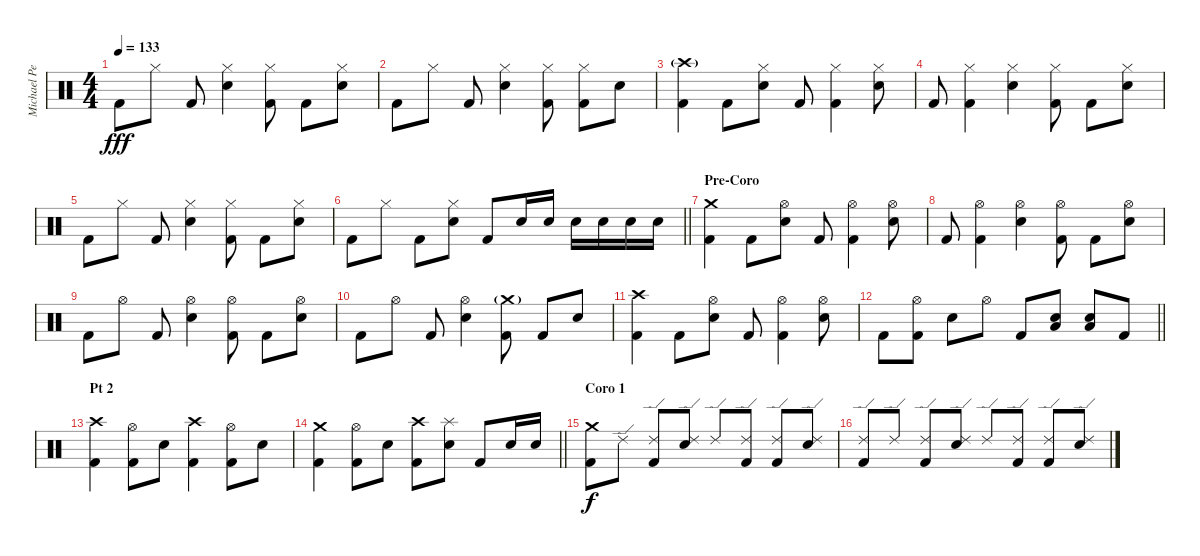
\track ("Michael Pedicone [Drums]" "Michael Pe") {instrument percussion}
\staff
\articulation defaults
\ts (4 4)
\tempo 133
\clef neutral
\ks c "Kick (hit) 2".8{dy fff} "Hi-Hat (closed)".8 "Kick (hit) 2".8
("Hi-Hat (closed)" "Electric Snare (hit)").4 ("Hi-Hat (closed)" "Kick (hit) 2").8 "Kick (hit) 2".8 ("Hi-Hat (closed)" "Electric Snare (hit)").8 |
"Kick (hit) 2".8 "Hi-Hat (closed)".8 "Kick (hit) 2".8 ("Hi-Hat (closed)" "Electric Snare (hit)").4 ("Hi-Hat (closed)" "Kick (hit) 2").8 ("Hi-Hat (closed)" "Kick (hit) 2").8 "Electric Snare (hit)".8 |
("Crash high (hit)"{g} "Kick (hit) 2").4 "Kick (hit) 2".8 ("Hi-Hat (closed)" "Electric Snare (hit)").8 "Kick (hit) 2".8 ("Hi-Hat (closed)" "Kick (hit) 2").4 ("Hi-Hat (closed)" "Electric Snare (hit)").8 |
"Kick (hit) 2".8 ("Hi-Hat (closed)" "Kick (hit) 2").4 ("Hi-Hat (closed)" "Electric Snare (hit)").4 ("Hi-Hat (closed)" "Kick (hit) 2").8 "Kick (hit) 2".8 ("Hi-Hat (closed)" "Electric Snare (hit)").8 |
"Kick (hit) 2".8 "Hi-Hat (closed)".8 "Kick (hit) 2".8 ("Hi-Hat (closed)" "Electric Snare (hit)").4 ("Hi-Hat (closed)" "Kick (hit) 2").8 "Kick (hit) 2".8 ("Hi-Hat (closed)" "Electric Snare (hit)").8 |
\barLineRight lightlight "Kick (hit) 2".8 "Hi-Hat (closed)".8 "Kick (hit) 2".8
("Hi-Hat (closed)" "Electric Snare (hit)").8 "Kick (hit) 2".8 "Electric Snare (hit)".16 "Electric Snare (hit)".16 "Electric Snare (hit)".16 "Electric Snare (hit)".16 "Electric Snare (hit)".16 "Electric Snare (hit)".16 |
\section ("" "Pre-Coro")
("Crash medium (hit)" "Kick (hit) 2").4 "Kick (hit) 2".8 ("Hi-Hat (open)" "Electric Snare (hit)").8 "Kick (hit) 2".8 ("Hi-Hat (open)" "Kick (hit) 2").4 ("Hi-Hat (open)" "Electric Snare (hit)").8 |
"Kick (hit) 2".8 ("Hi-Hat (open)" "Kick (hit) 2").4 ("Hi-Hat (open)" "Electric Snare (hit)").4 ("Hi-Hat (open)" "Kick (hit) 2").8 "Kick (hit) 2".8 ("Hi-Hat (open)" "Electric Snare (hit)").8 |
"Kick (hit) 2".8 "Hi-Hat (open)".8 "Kick (hit) 2".8 ("Hi-Hat (open)" "Electric Snare (hit)").4 ("Hi-Hat (open)" "Kick (hit) 2").8 "Kick (hit) 2".8 ("Hi-Hat (open)" "Electric Snare (hit)").8 |
"Kick (hit) 2".8 "Hi-Hat (open)".8 "Kick (hit) 2".8 ("Hi-Hat (open)" "Electric Snare (hit)").4 ("Crash medium (hit)"{g} "Kick (hit) 2").8 "Kick (hit) 2".8 "Electric Snare (hit)".8 |
("Crash high (hit)" "Kick (hit) 2").4 "Kick (hit) 2".8 ("Hi-Hat (open)" "Electric Snare (hit)").8 "Kick (hit) 2".8 ("Hi-Hat (open)" "Kick (hit) 2").4 ("Hi-Hat (open)" "Electric Snare (hit)").8 |
\barLineRight lightlight "Kick (hit) 2".8
("Hi-Hat (open)" "Kick (hit) 2").8 "Electric Snare (hit)".8 "Hi-Hat (open)".8 "Kick (hit) 2".8 ("Low Floor Tom (hit)" "Electric Snare (hit)").8 ("Low Floor Tom (hit)" "Electric Snare (hit)").8 "Kick (hit) 2".8 |
\section ("" "Pt 2")
("Crash high (hit)" "Kick (hit) 2").4 ("Hi-Hat (open)" "Kick (hit) 2").8 "Electric Snare (hit)".8 ("Crash high (hit)" "Kick (hit) 2").4 ("Hi-Hat (open)" "Kick (hit) 2").8 "Electric Snare (hit)".8 |
\barLineRight lightlight
("Crash medium (hit)" "Kick (hit) 2").4 ("Hi-Hat (open)" "Kick (hit) 2").8 "Electric Snare (hit)".8 ("Crash high (hit)" "Kick (hit) 2").8 ("Splash (hit)" "Electric Snare (hit)").8 "Kick (hit) 2".8 "Electric Snare (hit)".16 "Electric Snare (hit)".16 |
\section ("" "Coro 1")
("Crash medium (hit)" "Kick (hit) 2").8{dy f} "Ride (edge) 2".8 ("Ride (edge) 2" "Kick (hit) 2").8 ("Ride (edge) 2" "Electric Snare (hit)").8 "Ride (edge) 2".8 ("Ride (edge) 2" "Kick (hit) 2").8 ("Ride (edge) 2" "Kick (hit) 2").8 ("Ride (edge) 2" "Electric Snare (hit)").8 |
("Ride (edge) 2" "Kick (hit) 2").8 "Ride (edge) 2".8 ("Ride (edge) 2" "Kick (hit) 2").8 ("Ride (edge) 2" "Electric Snare (hit)").8 "Ride (edge) 2".8 ("Ride (edge) 2" "Kick (hit) 2").8 ("Ride (edge) 2" "Kick (hit) 2").8 ("Ride (edge) 2" "Electric Snare (hit)").8
